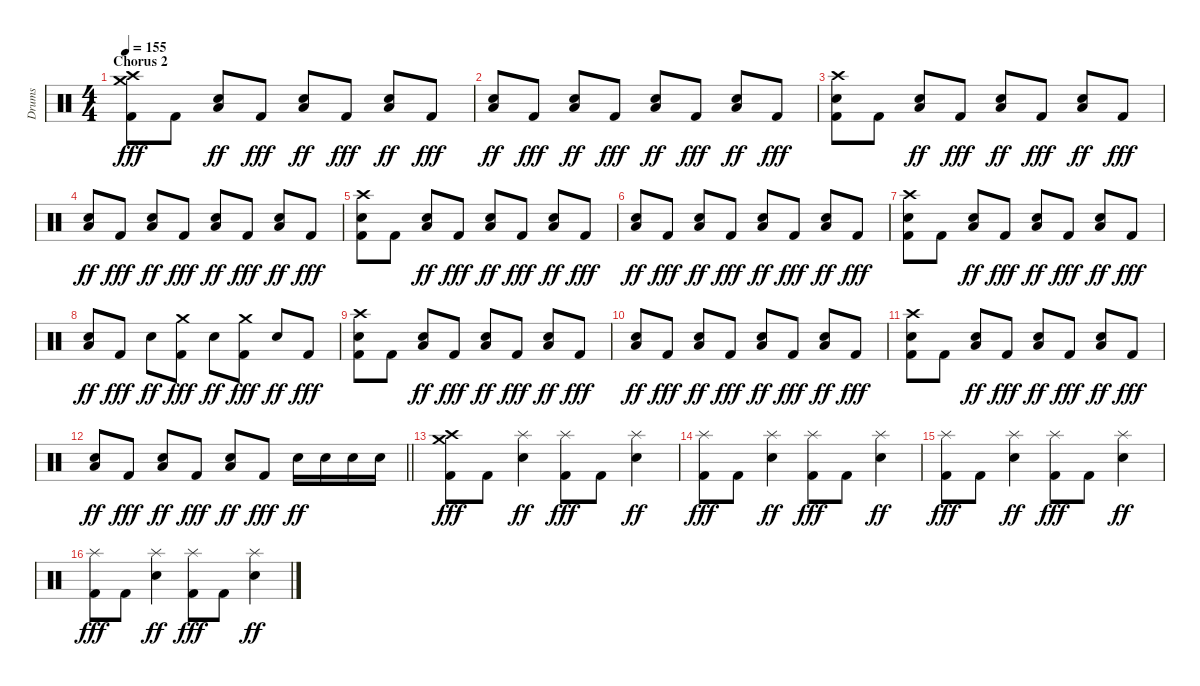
\track ("Drums" "Drums") {instrument percussion}
\staff {score}
\articulation defaults
\ts (4 4)
\section ("" "Chorus 2")
\tempo 155
\clef neutral
\ks c
("Crash high (hit)" "Crash medium (hit)" "Kick (hit) 2").8{dy fff} "Kick (hit) 2".8 ("Snare (hit) 2" "Low Floor Tom (hit)").8{dy ff} "Kick (hit) 2".8{dy fff} ("Snare (hit) 2" "Low Floor Tom (hit)").8{dy ff} "Kick (hit) 2".8{dy fff} ("Snare (hit) 2" "Low Floor Tom (hit)").8{dy ff} "Kick (hit) 2".8{dy fff} |
("Snare (hit) 2" "Low Floor Tom (hit)").8{dy ff} "Kick (hit) 2".8{dy fff} ("Snare (hit) 2" "Low Floor Tom (hit)").8{dy ff} "Kick (hit) 2".8{dy fff} ("Snare (hit) 2" "Low Floor Tom (hit)").8{dy ff} "Kick (hit) 2".8{dy fff} ("Snare (hit) 2" "Low Floor Tom (hit)").8{dy ff} "Kick (hit) 2".8{dy fff} |
("Crash high (hit)" "Snare (hit) 2" "Kick (hit) 2").8 "Kick (hit) 2".8 ("Snare (hit) 2" "Low Floor Tom (hit)").8{dy ff} "Kick (hit) 2".8{dy fff} ("Snare (hit) 2" "Low Floor Tom (hit)").8{dy ff} "Kick (hit) 2".8{dy fff} ("Snare (hit) 2" "Low Floor Tom (hit)").8{dy ff} "Kick (hit) 2".8{dy fff} |
("Snare (hit) 2" "Low Floor Tom (hit)").8{dy ff} "Kick (hit) 2".8{dy fff} ("Snare (hit) 2" "Low Floor Tom (hit)").8{dy ff} "Kick (hit) 2".8{dy fff} ("Snare (hit) 2" "Low Floor Tom (hit)").8{dy ff} "Kick (hit) 2".8{dy fff} ("Snare (hit) 2" "Low Floor Tom (hit)").8{dy ff} "Kick (hit) 2".8{dy fff} |
("Crash high (hit)" "Snare (hit) 2" "Kick (hit) 2").8 "Kick (hit) 2".8 ("Snare (hit) 2" "Low Floor Tom (hit)").8{dy ff} "Kick (hit) 2".8{dy fff} ("Snare (hit) 2" "Low Floor Tom (hit)").8{dy ff} "Kick (hit) 2".8{dy fff} ("Snare (hit) 2" "Low Floor Tom (hit)").8{dy ff} "Kick (hit) 2".8{dy fff} |
("Snare (hit) 2" "Low Floor Tom (hit)").8{dy ff} "Kick (hit) 2".8{dy fff} ("Snare (hit) 2" "Low Floor Tom (hit)").8{dy ff} "Kick (hit) 2".8{dy fff} ("Snare (hit) 2" "Low Floor Tom (hit)").8{dy ff} "Kick (hit) 2".8{dy fff} ("Snare (hit) 2" "Low Floor Tom (hit)").8{dy ff} "Kick (hit) 2".8{dy fff} |
("Crash high (hit)" "Snare (hit) 2" "Kick (hit) 2").8 "Kick (hit) 2".8 ("Snare (hit) 2" "Low Floor Tom (hit)").8{dy ff} "Kick (hit) 2".8{dy fff} ("Snare (hit) 2" "Low Floor Tom (hit)").8{dy ff} "Kick (hit) 2".8{dy fff} ("Snare (hit) 2" "Low Floor Tom (hit)").8{dy ff} "Kick (hit) 2".8{dy fff} |
("Snare (hit) 2" "Low Floor Tom (hit)").8{dy ff} "Kick (hit) 2".8{dy fff} "Snare (hit) 2".8{dy ff} ("Crash medium (hit)" "Kick (hit) 2").8{dy fff} "Snare (hit) 2".8{dy ff} ("Crash medium (hit)" "Kick (hit) 2").8{dy fff} "Snare (hit) 2".8{dy ff} "Kick (hit) 2".8{dy fff} |
("Crash high (hit)" "Snare (hit) 2" "Kick (hit) 2").8 "Kick (hit) 2".8 ("Snare (hit) 2" "Low Floor Tom (hit)").8{dy ff} "Kick (hit) 2".8{dy fff} ("Snare (hit) 2" "Low Floor Tom (hit)").8{dy ff} "Kick (hit) 2".8{dy fff} ("Snare (hit) 2" "Low Floor Tom (hit)").8{dy ff} "Kick (hit) 2".8{dy fff} |
("Snare (hit) 2" "Low Floor Tom (hit)").8{dy ff} "Kick (hit) 2".8{dy fff} ("Snare (hit) 2" "Low Floor Tom (hit)").8{dy ff} "Kick (hit) 2".8{dy fff} ("Snare (hit) 2" "Low Floor Tom (hit)").8{dy ff} "Kick (hit) 2".8{dy fff} ("Snare (hit) 2" "Low Floor Tom (hit)").8{dy ff} "Kick (hit) 2".8{dy fff} |
("Crash high (hit)" "Snare (hit) 2" "Kick (hit) 2").8 "Kick (hit) 2".8 ("Snare (hit) 2" "Low Floor Tom (hit)").8{dy ff} "Kick (hit) 2".8{dy fff} ("Snare (hit) 2" "Low Floor Tom (hit)").8{dy ff} "Kick (hit) 2".8{dy fff} ("Snare (hit) 2" "Low Floor Tom (hit)").8{dy ff} "Kick (hit) 2".8{dy fff} |
\barLineRight lightlight
("Snare (hit) 2" "Low Floor Tom (hit)").8{dy ff} "Kick (hit) 2".8{dy fff} ("Snare (hit) 2" "Low Floor Tom (hit)").8{dy ff} "Kick (hit) 2".8{dy fff} ("Snare (hit) 2" "Low Floor Tom (hit)").8{dy ff} "Kick (hit) 2".8{dy fff} "Snare (hit) 2".16{dy ff} "Snare (hit) 2".16 "Snare (hit) 2".16 "Snare (hit) 2".16 |
\section ("" "")
("Crash high (hit)" "Crash medium (hit)" "Kick (hit) 2").8{dy fff} "Kick (hit) 2".8 ("Splash (hit)" "Snare (hit) 2").4{dy ff} ("Splash (hit)" "Kick (hit) 2").8{dy fff} "Kick (hit) 2".8 ("Splash (hit)" "Snare (hit) 2").4{dy ff} |
("Splash (hit)" "Kick (hit) 2").8{dy fff} "Kick (hit) 2".8 ("Splash (hit)" "Snare (hit) 2").4{dy ff} ("Splash (hit)" "Kick (hit) 2").8{dy fff} "Kick (hit) 2".8 ("Splash (hit)" "Snare (hit) 2").4{dy ff} |
("Splash (hit)" "Kick (hit) 2").8{dy fff} "Kick (hit) 2".8 ("Splash (hit)" "Snare (hit) 2").4{dy ff} ("Splash (hit)" "Kick (hit) 2").8{dy fff} "Kick (hit) 2".8 ("Splash (hit)" "Snare (hit) 2").4{dy ff} |
("Splash (hit)" "Kick (hit) 2").8{dy fff} "Kick (hit) 2".8 ("Splash (hit)" "Snare (hit) 2").4{dy ff} ("Splash (hit)" "Kick (hit) 2").8{dy fff} "Kick (hit) 2".8 ("Splash (hit)" "Snare (hit) 2").4{dy ff}
